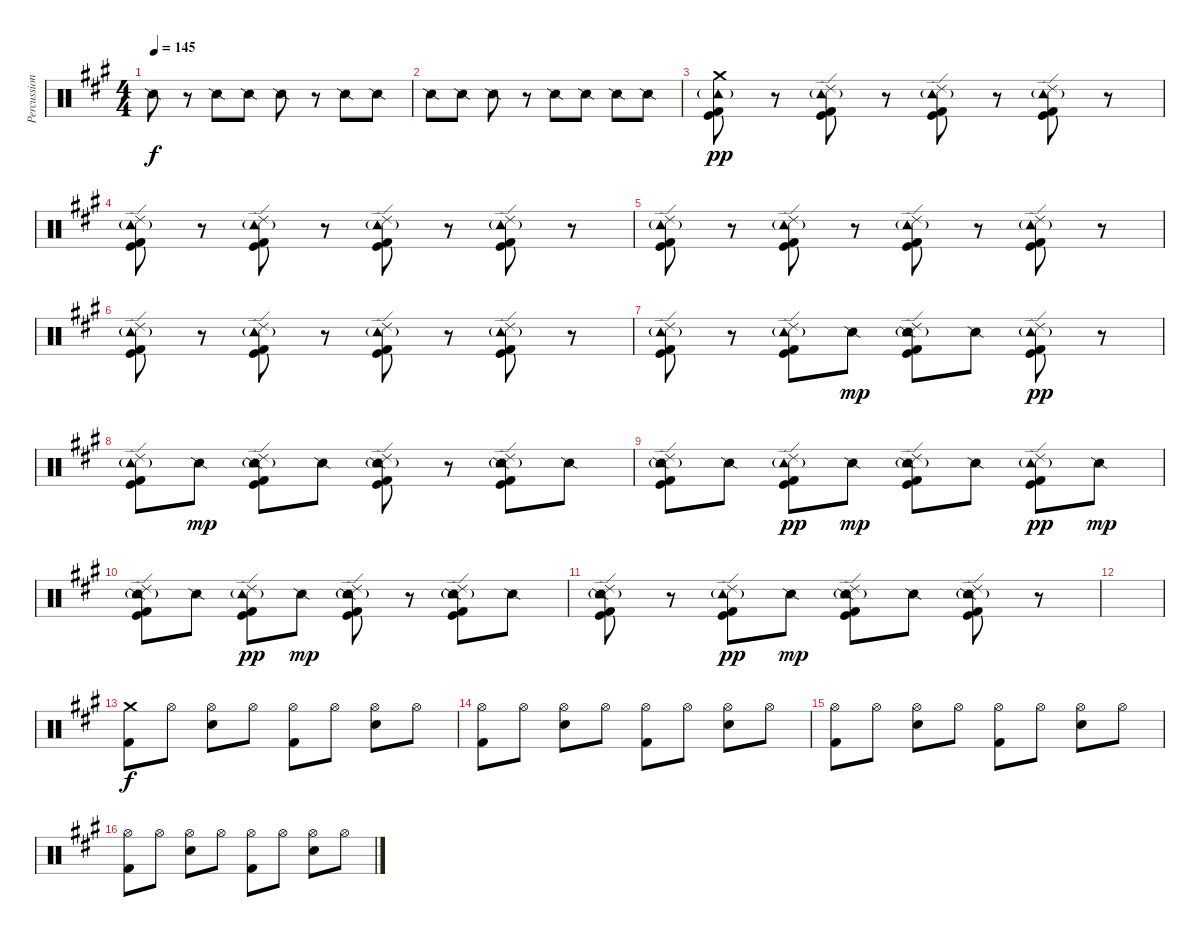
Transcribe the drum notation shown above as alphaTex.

\track ("Percussion" "Percussion") {instrument percussion}
\staff {score}
\articulation defaults
\ts (4 4)
\tempo 145
\clef neutral
\ks a "Snare (side stick) 2".8{dy f balance 16}
r.8 "Snare (side stick) 2".8{balance 0} "Snare (side stick) 2".8{balance 16} "Snare (side stick) 2".8{balance 0} r.8 "Snare (side stick) 2".8{balance 0} "Snare (side stick) 2".8{balance 16} |
"Snare (side stick) 2".8{balance 16} "Snare (side stick) 2".8{balance 0} "Snare (side stick) 2".8{balance 16} r.8 "Snare (side stick) 2".8{balance 0} "Snare (side stick) 2".8{balance 16} "Snare (side stick) 2".8{balance 0} "Snare (side stick) 2".8{balance 16} |
("Crash medium (hit)" "Tambourine (hit)"{g} "Kick (hit)" "Kick (hit) 2").8{dy pp volume 13 balance 8} r.8 ("Ride (edge) 2" "Tambourine (hit)"{g} "Kick (hit)" "Kick (hit) 2").8 r.8 ("Ride (edge) 2" "Tambourine (hit)"{g} "Kick (hit)" "Kick (hit) 2").8 r.8 ("Ride (edge) 2" "Tambourine (hit)"{g} "Kick (hit)" "Kick (hit) 2").8 r.8 |
("Ride (edge) 2" "Tambourine (hit)"{g} "Kick (hit)" "Kick (hit) 2").8 r.8 ("Ride (edge) 2" "Tambourine (hit)"{g} "Kick (hit)" "Kick (hit) 2").8 r.8 ("Ride (edge) 2" "Tambourine (hit)"{g} "Kick (hit)" "Kick (hit) 2").8 r.8 ("Ride (edge) 2" "Tambourine (hit)"{g} "Kick (hit)" "Kick (hit) 2").8 r.8 |
("Ride (edge) 2" "Tambourine (hit)"{g} "Kick (hit)" "Kick (hit) 2").8 r.8 ("Ride (edge) 2" "Tambourine (hit)"{g} "Kick (hit)" "Kick (hit) 2").8 r.8 ("Ride (edge) 2" "Tambourine (hit)"{g} "Kick (hit)" "Kick (hit) 2").8 r.8 ("Ride (edge) 2" "Tambourine (hit)"{g} "Kick (hit)" "Kick (hit) 2").8 r.8 |
("Ride (edge) 2" "Tambourine (hit)"{g} "Kick (hit)" "Kick (hit) 2").8 r.8 ("Ride (edge) 2" "Tambourine (hit)"{g} "Kick (hit)" "Kick (hit) 2").8 r.8 ("Ride (edge) 2" "Tambourine (hit)"{g} "Kick (hit)" "Kick (hit) 2").8 r.8 ("Ride (edge) 2" "Tambourine (hit)"{g} "Kick (hit)" "Kick (hit) 2").8 r.8 |
("Ride (edge) 2" "Tambourine (hit)"{g} "Kick (hit)" "Kick (hit) 2").8 r.8 ("Ride (edge) 2" "Tambourine (hit)"{g} "Kick (hit)" "Kick (hit) 2").8 "Snare (side stick) 2".8{dy mp} ("Ride (edge) 2" "Tambourine (hit)"{g} "Snare (side stick) 2" "Kick (hit)" "Kick (hit) 2").8 "Snare (side stick) 2".8 ("Ride (edge) 2" "Tambourine (hit)"{g} "Kick (hit)" "Kick (hit) 2").8{dy pp} r.8 |
("Ride (edge) 2" "Tambourine (hit)"{g} "Kick (hit)" "Kick (hit) 2").8 "Snare (side stick) 2".8{dy mp} ("Ride (edge) 2" "Tambourine (hit)"{g} "Snare (side stick) 2" "Kick (hit)" "Kick (hit) 2").8 "Snare (side stick) 2".8 ("Ride (edge) 2" "Tambourine (hit)"{g} "Snare (side stick) 2" "Kick (hit)" "Kick (hit) 2").8 r.8 ("Ride (edge) 2" "Tambourine (hit)"{g} "Snare (side stick) 2" "Kick (hit)" "Kick (hit) 2").8 "Snare (side stick) 2".8 |
("Ride (edge) 2" "Tambourine (hit)"{g} "Snare (side stick) 2" "Kick (hit)" "Kick (hit) 2").8 "Snare (side stick) 2".8 ("Ride (edge) 2" "Tambourine (hit)"{g} "Kick (hit)" "Kick (hit) 2").8{dy pp} "Snare (side stick) 2".8{dy mp} ("Ride (edge) 2" "Tambourine (hit)"{g} "Snare (side stick) 2" "Kick (hit)" "Kick (hit) 2").8 "Snare (side stick) 2".8 ("Ride (edge) 2" "Tambourine (hit)"{g} "Kick (hit)" "Kick (hit) 2").8{dy pp} "Snare (side stick) 2".8{dy mp} |
("Ride (edge) 2" "Tambourine (hit)"{g} "Snare (side stick) 2" "Kick (hit)" "Kick (hit) 2").8 "Snare (side stick) 2".8 ("Ride (edge) 2" "Tambourine (hit)"{g} "Kick (hit)" "Kick (hit) 2").8{dy pp} "Snare (side stick) 2".8{dy mp} ("Ride (edge) 2" "Tambourine (hit)"{g} "Snare (side stick) 2" "Kick (hit)" "Kick (hit) 2").8 r.8 ("Ride (edge) 2" "Tambourine (hit)"{g} "Snare (side stick) 2" "Kick (hit)" "Kick (hit) 2").8 "Snare (side stick) 2".8 |
("Ride (edge) 2" "Tambourine (hit)"{g} "Snare (side stick) 2" "Kick (hit)" "Kick (hit) 2").8 r.8 ("Ride (edge) 2" "Tambourine (hit)"{g} "Kick (hit)" "Kick (hit) 2").8{dy pp} "Snare (side stick) 2".8{dy mp} ("Ride (edge) 2" "Tambourine (hit)"{g} "Snare (side stick) 2" "Kick (hit)" "Kick (hit) 2").8 "Snare (side stick) 2".8 ("Ride (edge) 2" "Tambourine (hit)"{g} "Snare (side stick) 2" "Kick (hit)" "Kick (hit) 2").8 r.8 |
|
("Crash medium (hit)" "Kick (hit) 2").8{dy f} "Hi-Hat (open)".8 ("Hi-Hat (open)" "Snare (hit) 2").8 "Hi-Hat (open)".8 ("Hi-Hat (open)" "Kick (hit) 2").8 "Hi-Hat (open)".8 ("Hi-Hat (open)" "Snare (hit) 2").8 "Hi-Hat (open)".8 |
("Hi-Hat (open)" "Kick (hit) 2").8 "Hi-Hat (open)".8 ("Hi-Hat (open)" "Snare (hit) 2").8 "Hi-Hat (open)".8 ("Hi-Hat (open)" "Kick (hit) 2").8 "Hi-Hat (open)".8 ("Hi-Hat (open)" "Snare (hit) 2").8 "Hi-Hat (open)".8 |
("Hi-Hat (open)" "Kick (hit) 2").8 "Hi-Hat (open)".8 ("Hi-Hat (open)" "Snare (hit) 2").8 "Hi-Hat (open)".8 ("Hi-Hat (open)" "Kick (hit) 2").8 "Hi-Hat (open)".8 ("Hi-Hat (open)" "Snare (hit) 2").8 "Hi-Hat (open)".8 |
("Hi-Hat (open)" "Kick (hit) 2").8 "Hi-Hat (open)".8 ("Hi-Hat (open)" "Snare (hit) 2").8 "Hi-Hat (open)".8 ("Hi-Hat (open)" "Kick (hit) 2").8 "Hi-Hat (open)".8 ("Hi-Hat (open)" "Snare (hit) 2").8 "Hi-Hat (open)".8
